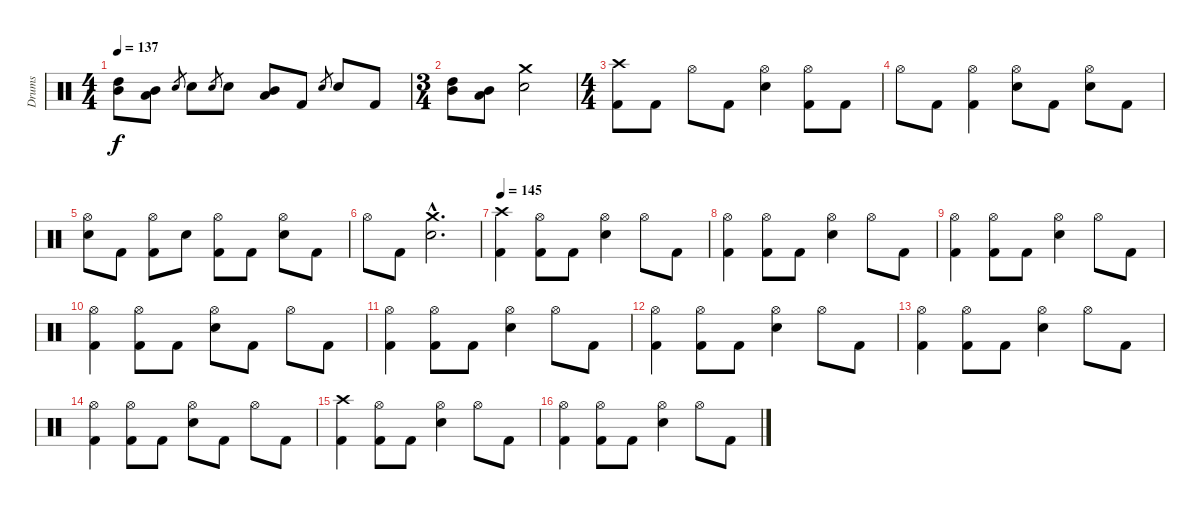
\track ("Drums" "Drums") {instrument percussion}
\staff {score}
\articulation defaults
\ts (4 4)
\tempo 137
\clef neutral
\ks c
("High Tom (hit)" "Mid Tom (hit)").8{dy f} ("Mid Tom (hit)" "Low Tom (hit)").8 "Electric Snare (hit)".8{gr} "Electric Snare (hit)".8 "Electric Snare (hit)".8{gr} "Electric Snare (hit)".8 ("Mid Tom (hit)" "Low Tom (hit)").8 "Kick (hit) 2".8 "Electric Snare (hit)".8{gr} "Electric Snare (hit)".8 "Kick (hit) 2".8 |
\ts (3 4)
("High Tom (hit)" "Mid Tom (hit)").8 ("Mid Tom (hit)" "Low Tom (hit)").8 ("Crash medium (hit)" "Electric Snare (hit)").2 |
\ts (4 4)
("Crash high (hit)" "Kick (hit) 2").8 "Kick (hit) 2".8 "Hi-Hat (open)".8 "Kick (hit) 2".8 ("Hi-Hat (open)" "Electric Snare (hit)").4 ("Hi-Hat (open)" "Kick (hit) 2").8 "Kick (hit) 2".8 |
"Hi-Hat (open)".8 "Kick (hit) 2".8 ("Hi-Hat (open)" "Kick (hit) 2").4 ("Hi-Hat (open)" "Electric Snare (hit)").8 "Kick (hit) 2".8 ("Hi-Hat (open)" "Electric Snare (hit)").8 "Kick (hit) 2".8 |
("Hi-Hat (open)" "Electric Snare (hit)").8 "Kick (hit) 2".8 ("Hi-Hat (open)" "Kick (hit) 2").8 "Electric Snare (hit)".8 ("Hi-Hat (open)" "Kick (hit) 2").8 "Kick (hit) 2".8 ("Hi-Hat (open)" "Electric Snare (hit)").8 "Kick (hit) 2".8 |
"Hi-Hat (open)".8 "Kick (hit) 2".8 ("Crash medium (hit)"{hac} "Electric Snare (hit)"{hac}).2{d} |
\tempo 145
("Crash high (hit)" "Kick (hit) 2").4 ("Hi-Hat (open)" "Kick (hit) 2").8 "Kick (hit) 2".8 ("Hi-Hat (open)" "Electric Snare (hit)").4 "Hi-Hat (open)".8 "Kick (hit) 2".8 |
("Hi-Hat (open)" "Kick (hit) 2").4 ("Hi-Hat (open)" "Kick (hit) 2").8 "Kick (hit) 2".8 ("Hi-Hat (open)" "Electric Snare (hit)").4 "Hi-Hat (open)".8 "Kick (hit) 2".8 |
("Hi-Hat (open)" "Kick (hit) 2").4 ("Hi-Hat (open)" "Kick (hit) 2").8 "Kick (hit) 2".8 ("Hi-Hat (open)" "Electric Snare (hit)").4 "Hi-Hat (open)".8 "Kick (hit) 2".8 |
("Hi-Hat (open)" "Kick (hit) 2").4 ("Hi-Hat (open)" "Kick (hit) 2").8 "Kick (hit) 2".8 ("Hi-Hat (open)" "Electric Snare (hit)").8 "Kick (hit) 2".8 "Hi-Hat (open)".8 "Kick (hit) 2".8 |
("Hi-Hat (open)" "Kick (hit) 2").4 ("Hi-Hat (open)" "Kick (hit) 2").8 "Kick (hit) 2".8 ("Hi-Hat (open)" "Electric Snare (hit)").4 "Hi-Hat (open)".8 "Kick (hit) 2".8 |
("Hi-Hat (open)" "Kick (hit) 2").4 ("Hi-Hat (open)" "Kick (hit) 2").8 "Kick (hit) 2".8 ("Hi-Hat (open)" "Electric Snare (hit)").4 "Hi-Hat (open)".8 "Kick (hit) 2".8 |
("Hi-Hat (open)" "Kick (hit) 2").4 ("Hi-Hat (open)" "Kick (hit) 2").8 "Kick (hit) 2".8 ("Hi-Hat (open)" "Electric Snare (hit)").4 "Hi-Hat (open)".8 "Kick (hit) 2".8 |
("Hi-Hat (open)" "Kick (hit) 2").4 ("Hi-Hat (open)" "Kick (hit) 2").8 "Kick (hit) 2".8 ("Hi-Hat (open)" "Electric Snare (hit)").8 "Kick (hit) 2".8 "Hi-Hat (open)".8 "Kick (hit) 2".8 |
("Crash high (hit)" "Kick (hit) 2").4 ("Hi-Hat (open)" "Kick (hit) 2").8 "Kick (hit) 2".8 ("Hi-Hat (open)" "Electric Snare (hit)").4 "Hi-Hat (open)".8 "Kick (hit) 2".8 |
("Hi-Hat (open)" "Kick (hit) 2").4 ("Hi-Hat (open)" "Kick (hit) 2").8 "Kick (hit) 2".8 ("Hi-Hat (open)" "Electric Snare (hit)").4 "Hi-Hat (open)".8 "Kick (hit) 2".8
